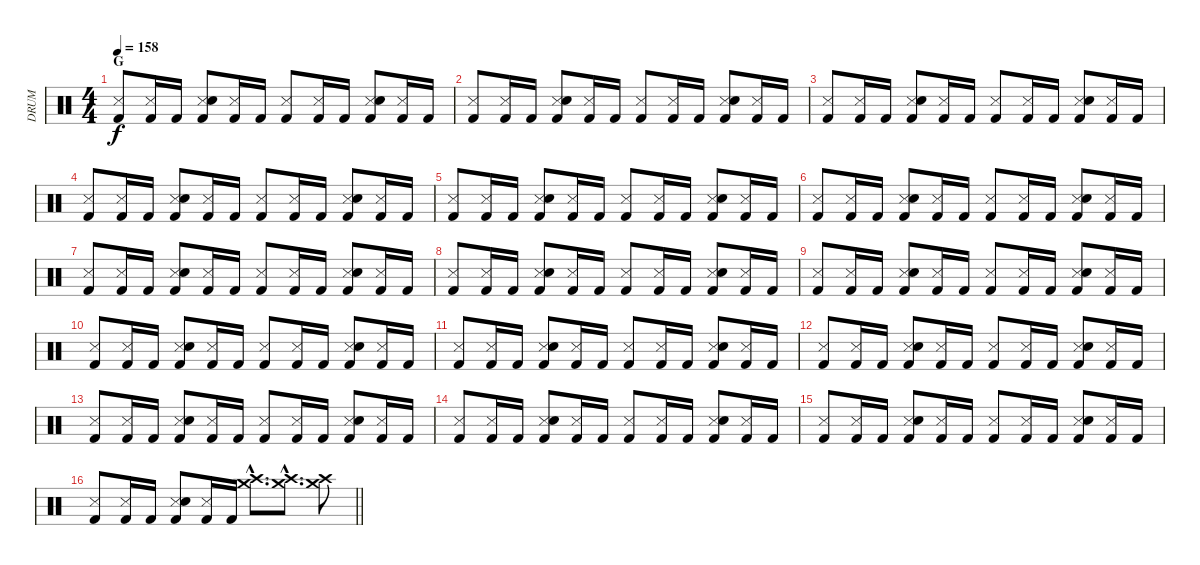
\track ("DRUM" "DRUM") {instrument percussion}
\staff {score}
\articulation defaults
\ts (4 4)
\section ("" "G")
\tempo 158
\clef neutral
\ks c
("Metronome (hit)" "Kick (hit) 2").8{dy f} ("Metronome (hit)" "Kick (hit) 2").16 "Kick (hit) 2".16 ("Metronome (hit)" "Snare (hit) 2" "Kick (hit) 2").8 ("Metronome (hit)" "Kick (hit) 2").16 "Kick (hit) 2".16 ("Metronome (hit)" "Kick (hit) 2").8 ("Metronome (hit)" "Kick (hit) 2").16 "Kick (hit) 2".16 ("Metronome (hit)" "Snare (hit) 2" "Kick (hit) 2").8 ("Metronome (hit)" "Kick (hit) 2").16 "Kick (hit) 2".16 |
("Metronome (hit)" "Kick (hit) 2").8 ("Metronome (hit)" "Kick (hit) 2").16 "Kick (hit) 2".16 ("Metronome (hit)" "Snare (hit) 2" "Kick (hit) 2").8 ("Metronome (hit)" "Kick (hit) 2").16 "Kick (hit) 2".16 ("Metronome (hit)" "Kick (hit) 2").8 ("Metronome (hit)" "Kick (hit) 2").16 "Kick (hit) 2".16 ("Metronome (hit)" "Snare (hit) 2" "Kick (hit) 2").8 ("Metronome (hit)" "Kick (hit) 2").16 "Kick (hit) 2".16 |
("Metronome (hit)" "Kick (hit) 2").8 ("Metronome (hit)" "Kick (hit) 2").16 "Kick (hit) 2".16 ("Metronome (hit)" "Snare (hit) 2" "Kick (hit) 2").8 ("Metronome (hit)" "Kick (hit) 2").16 "Kick (hit) 2".16 ("Metronome (hit)" "Kick (hit) 2").8 ("Metronome (hit)" "Kick (hit) 2").16 "Kick (hit) 2".16 ("Metronome (hit)" "Snare (hit) 2" "Kick (hit) 2").8 ("Metronome (hit)" "Kick (hit) 2").16 "Kick (hit) 2".16 |
("Metronome (hit)" "Kick (hit) 2").8 ("Metronome (hit)" "Kick (hit) 2").16 "Kick (hit) 2".16 ("Metronome (hit)" "Snare (hit) 2" "Kick (hit) 2").8 ("Metronome (hit)" "Kick (hit) 2").16 "Kick (hit) 2".16 ("Metronome (hit)" "Kick (hit) 2").8 ("Metronome (hit)" "Kick (hit) 2").16 "Kick (hit) 2".16 ("Metronome (hit)" "Snare (hit) 2" "Kick (hit) 2").8 ("Metronome (hit)" "Kick (hit) 2").16 "Kick (hit) 2".16 |
("Metronome (hit)" "Kick (hit) 2").8 ("Metronome (hit)" "Kick (hit) 2").16 "Kick (hit) 2".16 ("Metronome (hit)" "Snare (hit) 2" "Kick (hit) 2").8 ("Metronome (hit)" "Kick (hit) 2").16 "Kick (hit) 2".16 ("Metronome (hit)" "Kick (hit) 2").8 ("Metronome (hit)" "Kick (hit) 2").16 "Kick (hit) 2".16 ("Metronome (hit)" "Snare (hit) 2" "Kick (hit) 2").8 ("Metronome (hit)" "Kick (hit) 2").16 "Kick (hit) 2".16 |
("Metronome (hit)" "Kick (hit) 2").8 ("Metronome (hit)" "Kick (hit) 2").16 "Kick (hit) 2".16 ("Metronome (hit)" "Snare (hit) 2" "Kick (hit) 2").8 ("Metronome (hit)" "Kick (hit) 2").16 "Kick (hit) 2".16 ("Metronome (hit)" "Kick (hit) 2").8 ("Metronome (hit)" "Kick (hit) 2").16 "Kick (hit) 2".16 ("Metronome (hit)" "Snare (hit) 2" "Kick (hit) 2").8 ("Metronome (hit)" "Kick (hit) 2").16 "Kick (hit) 2".16 |
("Metronome (hit)" "Kick (hit) 2").8 ("Metronome (hit)" "Kick (hit) 2").16 "Kick (hit) 2".16 ("Metronome (hit)" "Snare (hit) 2" "Kick (hit) 2").8 ("Metronome (hit)" "Kick (hit) 2").16 "Kick (hit) 2".16 ("Metronome (hit)" "Kick (hit) 2").8 ("Metronome (hit)" "Kick (hit) 2").16 "Kick (hit) 2".16 ("Metronome (hit)" "Snare (hit) 2" "Kick (hit) 2").8 ("Metronome (hit)" "Kick (hit) 2").16 "Kick (hit) 2".16 |
("Metronome (hit)" "Kick (hit) 2").8 ("Metronome (hit)" "Kick (hit) 2").16 "Kick (hit) 2".16 ("Metronome (hit)" "Snare (hit) 2" "Kick (hit) 2").8 ("Metronome (hit)" "Kick (hit) 2").16 "Kick (hit) 2".16 ("Metronome (hit)" "Kick (hit) 2").8 ("Metronome (hit)" "Kick (hit) 2").16 "Kick (hit) 2".16 ("Metronome (hit)" "Snare (hit) 2" "Kick (hit) 2").8 ("Metronome (hit)" "Kick (hit) 2").16 "Kick (hit) 2".16 |
("Metronome (hit)" "Kick (hit) 2").8 ("Metronome (hit)" "Kick (hit) 2").16 "Kick (hit) 2".16 ("Metronome (hit)" "Snare (hit) 2" "Kick (hit) 2").8 ("Metronome (hit)" "Kick (hit) 2").16 "Kick (hit) 2".16 ("Metronome (hit)" "Kick (hit) 2").8 ("Metronome (hit)" "Kick (hit) 2").16 "Kick (hit) 2".16 ("Metronome (hit)" "Snare (hit) 2" "Kick (hit) 2").8 ("Metronome (hit)" "Kick (hit) 2").16 "Kick (hit) 2".16 |
("Metronome (hit)" "Kick (hit) 2").8 ("Metronome (hit)" "Kick (hit) 2").16 "Kick (hit) 2".16 ("Metronome (hit)" "Snare (hit) 2" "Kick (hit) 2").8 ("Metronome (hit)" "Kick (hit) 2").16 "Kick (hit) 2".16 ("Metronome (hit)" "Kick (hit) 2").8 ("Metronome (hit)" "Kick (hit) 2").16 "Kick (hit) 2".16 ("Metronome (hit)" "Snare (hit) 2" "Kick (hit) 2").8 ("Metronome (hit)" "Kick (hit) 2").16 "Kick (hit) 2".16 |
("Metronome (hit)" "Kick (hit) 2").8 ("Metronome (hit)" "Kick (hit) 2").16 "Kick (hit) 2".16 ("Metronome (hit)" "Snare (hit) 2" "Kick (hit) 2").8 ("Metronome (hit)" "Kick (hit) 2").16 "Kick (hit) 2".16 ("Metronome (hit)" "Kick (hit) 2").8 ("Metronome (hit)" "Kick (hit) 2").16 "Kick (hit) 2".16 ("Metronome (hit)" "Snare (hit) 2" "Kick (hit) 2").8 ("Metronome (hit)" "Kick (hit) 2").16 "Kick (hit) 2".16 |
("Metronome (hit)" "Kick (hit) 2").8 ("Metronome (hit)" "Kick (hit) 2").16 "Kick (hit) 2".16 ("Metronome (hit)" "Snare (hit) 2" "Kick (hit) 2").8 ("Metronome (hit)" "Kick (hit) 2").16 "Kick (hit) 2".16 ("Metronome (hit)" "Kick (hit) 2").8 ("Metronome (hit)" "Kick (hit) 2").16 "Kick (hit) 2".16 ("Metronome (hit)" "Snare (hit) 2" "Kick (hit) 2").8 ("Metronome (hit)" "Kick (hit) 2").16 "Kick (hit) 2".16 |
("Metronome (hit)" "Kick (hit) 2").8 ("Metronome (hit)" "Kick (hit) 2").16 "Kick (hit) 2".16 ("Metronome (hit)" "Snare (hit) 2" "Kick (hit) 2").8 ("Metronome (hit)" "Kick (hit) 2").16 "Kick (hit) 2".16 ("Metronome (hit)" "Kick (hit) 2").8 ("Metronome (hit)" "Kick (hit) 2").16 "Kick (hit) 2".16 ("Metronome (hit)" "Snare (hit) 2" "Kick (hit) 2").8 ("Metronome (hit)" "Kick (hit) 2").16 "Kick (hit) 2".16 |
("Metronome (hit)" "Kick (hit) 2").8 ("Metronome (hit)" "Kick (hit) 2").16 "Kick (hit) 2".16 ("Metronome (hit)" "Snare (hit) 2" "Kick (hit) 2").8 ("Metronome (hit)" "Kick (hit) 2").16 "Kick (hit) 2".16 ("Metronome (hit)" "Kick (hit) 2").8 ("Metronome (hit)" "Kick (hit) 2").16 "Kick (hit) 2".16 ("Metronome (hit)" "Snare (hit) 2" "Kick (hit) 2").8 ("Metronome (hit)" "Kick (hit) 2").16 "Kick (hit) 2".16 |
("Metronome (hit)" "Kick (hit) 2").8 ("Metronome (hit)" "Kick (hit) 2").16 "Kick (hit) 2".16 ("Metronome (hit)" "Snare (hit) 2" "Kick (hit) 2").8 ("Metronome (hit)" "Kick (hit) 2").16 "Kick (hit) 2".16 ("Metronome (hit)" "Kick (hit) 2").8 ("Metronome (hit)" "Kick (hit) 2").16 "Kick (hit) 2".16 ("Metronome (hit)" "Snare (hit) 2" "Kick (hit) 2").8 ("Metronome (hit)" "Kick (hit) 2").16 "Kick (hit) 2".16 |
\barLineRight lightlight
("Metronome (hit)" "Kick (hit) 2").8 ("Metronome (hit)" "Kick (hit) 2").16 "Kick (hit) 2".16 ("Metronome (hit)" "Snare (hit) 2" "Kick (hit) 2").8 ("Metronome (hit)" "Kick (hit) 2").16 "Kick (hit) 2".16 ("Crash high (hit)"{hac} "Crash medium (hit)"{hac}).8{d} ("Crash high (hit)"{hac} "Crash medium (hit)"{hac}).8{d} ("Crash high (hit)" "Crash medium (hit)").8
